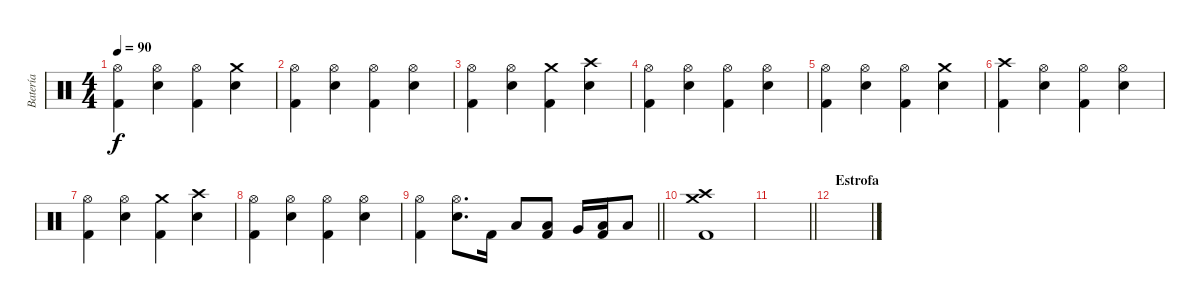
\track ("Batería" "Batería") {instrument percussion}
\staff {score}
\articulation defaults
\ts (4 4)
\tempo 90
\clef neutral
\ks c
("Hi-Hat (open)" "Kick (hit) 2").4{dy f} ("Hi-Hat (open)" "Snare (hit) 2").4 ("Hi-Hat (open)" "Kick (hit) 2").4 ("Crash medium (hit)" "Snare (hit) 2").4 |
("Hi-Hat (open)" "Kick (hit) 2").4 ("Hi-Hat (open)" "Snare (hit) 2").4 ("Hi-Hat (open)" "Kick (hit) 2").4 ("Hi-Hat (open)" "Snare (hit) 2").4 |
("Hi-Hat (open)" "Kick (hit) 2").4 ("Hi-Hat (open)" "Snare (hit) 2").4 ("Crash medium (hit)" "Kick (hit) 2").4 ("Crash high (hit)" "Snare (hit) 2").4 |
("Hi-Hat (open)" "Kick (hit) 2").4 ("Hi-Hat (open)" "Snare (hit) 2").4 ("Hi-Hat (open)" "Kick (hit) 2").4 ("Hi-Hat (open)" "Snare (hit) 2").4 |
("Hi-Hat (open)" "Kick (hit) 2").4 ("Hi-Hat (open)" "Snare (hit) 2").4 ("Hi-Hat (open)" "Kick (hit) 2").4 ("Crash medium (hit)" "Snare (hit) 2").4 |
("Crash high (hit)" "Kick (hit) 2").4 ("Hi-Hat (open)" "Snare (hit) 2").4 ("Hi-Hat (open)" "Kick (hit) 2").4 ("Hi-Hat (open)" "Snare (hit) 2").4 |
("Hi-Hat (open)" "Kick (hit) 2").4 ("Hi-Hat (open)" "Snare (hit) 2").4 ("Crash medium (hit)" "Kick (hit) 2").4 ("Crash high (hit)" "Snare (hit) 2").4 |
("Hi-Hat (open)" "Kick (hit) 2").4 ("Hi-Hat (open)" "Snare (hit) 2").4 ("Hi-Hat (open)" "Kick (hit) 2").4 ("Hi-Hat (open)" "Snare (hit) 2").4 |
\barLineRight lightlight
("Hi-Hat (open)" "Kick (hit) 2").4 ("Hi-Hat (open)" "Snare (hit) 2").8{d} "Kick (hit) 2".16 "Low Tom (hit)".8 ("Low Tom (hit)" "Kick (hit) 2").8 "Very Low Tom (hit)".16 ("Low Floor Tom (hit)" "Kick (hit) 2").16 "Low Floor Tom (hit)".8 |
("Crash medium (hit)" "Crash high (hit)" "Kick (hit) 2").1 |
\barLineRight lightlight
|
\section ("" "Estrofa")
